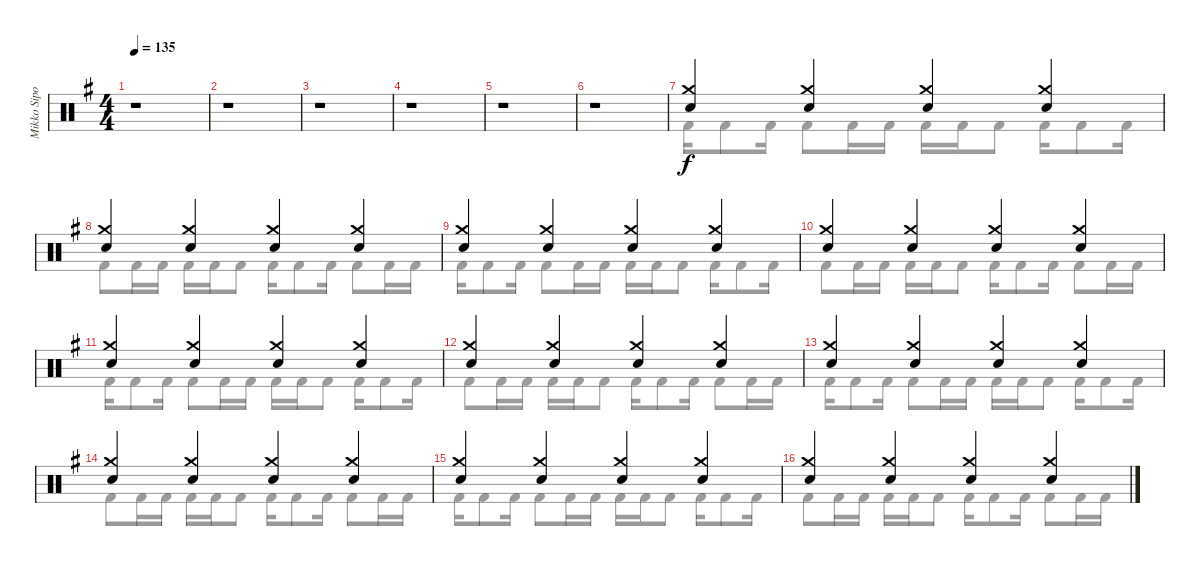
\track ("Mikko Sipola (drums)" "Mikko Sipo") {instrument percussion}
\staff {score}
\articulation defaults
\voice
\ts (4 4)
\tempo 135
\clef neutral
\ks eminor
r.1{dy f} |
r.1 |
r.1 |
r.1 |
r.1 |
r.1 |
("Crash medium (hit)" "Electric Snare (hit)").4 ("Crash medium (hit)" "Electric Snare (hit)").4 ("Crash medium (hit)" "Electric Snare (hit)").4 ("Crash medium (hit)" "Electric Snare (hit)").4 |
("Crash medium (hit)" "Electric Snare (hit)").4 ("Crash medium (hit)" "Electric Snare (hit)").4 ("Crash medium (hit)" "Electric Snare (hit)").4 ("Crash medium (hit)" "Electric Snare (hit)").4 |
("Crash medium (hit)" "Electric Snare (hit)").4 ("Crash medium (hit)" "Electric Snare (hit)").4 ("Crash medium (hit)" "Electric Snare (hit)").4 ("Crash medium (hit)" "Electric Snare (hit)").4 |
("Crash medium (hit)" "Electric Snare (hit)").4 ("Crash medium (hit)" "Electric Snare (hit)").4 ("Crash medium (hit)" "Electric Snare (hit)").4 ("Crash medium (hit)" "Electric Snare (hit)").4 |
("Crash medium (hit)" "Electric Snare (hit)").4 ("Crash medium (hit)" "Electric Snare (hit)").4 ("Crash medium (hit)" "Electric Snare (hit)").4 ("Crash medium (hit)" "Electric Snare (hit)").4 |
("Crash medium (hit)" "Electric Snare (hit)").4 ("Crash medium (hit)" "Electric Snare (hit)").4 ("Crash medium (hit)" "Electric Snare (hit)").4 ("Crash medium (hit)" "Electric Snare (hit)").4 |
("Crash medium (hit)" "Electric Snare (hit)").4 ("Crash medium (hit)" "Electric Snare (hit)").4 ("Crash medium (hit)" "Electric Snare (hit)").4 ("Crash medium (hit)" "Electric Snare (hit)").4 |
("Crash medium (hit)" "Electric Snare (hit)").4 ("Crash medium (hit)" "Electric Snare (hit)").4 ("Crash medium (hit)" "Electric Snare (hit)").4 ("Crash medium (hit)" "Electric Snare (hit)").4 |
("Crash medium (hit)" "Electric Snare (hit)").4 ("Crash medium (hit)" "Electric Snare (hit)").4 ("Crash medium (hit)" "Electric Snare (hit)").4 ("Crash medium (hit)" "Electric Snare (hit)").4 |
("Crash medium (hit)" "Electric Snare (hit)").4 ("Crash medium (hit)" "Electric Snare (hit)").4 ("Crash medium (hit)" "Electric Snare (hit)").4 ("Crash medium (hit)" "Electric Snare (hit)").4
\voice
\clef neutral
\ottava regular
\simile none
\ks eminor
|
|
|
|
|
|
"Kick (hit) 2".16 "Kick (hit) 2".8 "Kick (hit) 2".16 "Kick (hit) 2".8 "Kick (hit) 2".16 "Kick (hit) 2".16 "Kick (hit) 2".16 "Kick (hit) 2".16 "Kick (hit) 2".8 "Kick (hit) 2".16 "Kick (hit) 2".8 "Kick (hit) 2".16 |
"Kick (hit) 2".8 "Kick (hit) 2".16 "Kick (hit) 2".16 "Kick (hit) 2".16 "Kick (hit) 2".16 "Kick (hit) 2".8 "Kick (hit) 2".16 "Kick (hit) 2".8 "Kick (hit) 2".16 "Kick (hit) 2".8 "Kick (hit) 2".16 "Kick (hit) 2".16 |
"Kick (hit) 2".16 "Kick (hit) 2".8 "Kick (hit) 2".16 "Kick (hit) 2".8 "Kick (hit) 2".16 "Kick (hit) 2".16 "Kick (hit) 2".16 "Kick (hit) 2".16 "Kick (hit) 2".8 "Kick (hit) 2".16 "Kick (hit) 2".8 "Kick (hit) 2".16 |
"Kick (hit) 2".8 "Kick (hit) 2".16 "Kick (hit) 2".16 "Kick (hit) 2".16 "Kick (hit) 2".16 "Kick (hit) 2".8 "Kick (hit) 2".16 "Kick (hit) 2".8 "Kick (hit) 2".16 "Kick (hit) 2".8 "Kick (hit) 2".16 "Kick (hit) 2".16 |
"Kick (hit) 2".16 "Kick (hit) 2".8 "Kick (hit) 2".16 "Kick (hit) 2".8 "Kick (hit) 2".16 "Kick (hit) 2".16 "Kick (hit) 2".16 "Kick (hit) 2".16 "Kick (hit) 2".8 "Kick (hit) 2".16 "Kick (hit) 2".8 "Kick (hit) 2".16 |
"Kick (hit) 2".8 "Kick (hit) 2".16 "Kick (hit) 2".16 "Kick (hit) 2".16 "Kick (hit) 2".16 "Kick (hit) 2".8 "Kick (hit) 2".16 "Kick (hit) 2".8 "Kick (hit) 2".16 "Kick (hit) 2".8 "Kick (hit) 2".16 "Kick (hit) 2".16 |
"Kick (hit) 2".16 "Kick (hit) 2".8 "Kick (hit) 2".16 "Kick (hit) 2".8 "Kick (hit) 2".16 "Kick (hit) 2".16 "Kick (hit) 2".16 "Kick (hit) 2".16 "Kick (hit) 2".8 "Kick (hit) 2".16 "Kick (hit) 2".8 "Kick (hit) 2".16 |
"Kick (hit) 2".8 "Kick (hit) 2".16 "Kick (hit) 2".16 "Kick (hit) 2".16 "Kick (hit) 2".16 "Kick (hit) 2".8 "Kick (hit) 2".16 "Kick (hit) 2".8 "Kick (hit) 2".16 "Kick (hit) 2".8 "Kick (hit) 2".16 "Kick (hit) 2".16 |
"Kick (hit) 2".16 "Kick (hit) 2".8 "Kick (hit) 2".16 "Kick (hit) 2".8 "Kick (hit) 2".16 "Kick (hit) 2".16 "Kick (hit) 2".16 "Kick (hit) 2".16 "Kick (hit) 2".8 "Kick (hit) 2".16 "Kick (hit) 2".8 "Kick (hit) 2".16 |
"Kick (hit) 2".8 "Kick (hit) 2".16 "Kick (hit) 2".16 "Kick (hit) 2".16 "Kick (hit) 2".16 "Kick (hit) 2".8 "Kick (hit) 2".16 "Kick (hit) 2".8 "Kick (hit) 2".16 "Kick (hit) 2".8 "Kick (hit) 2".16 "Kick (hit) 2".16
